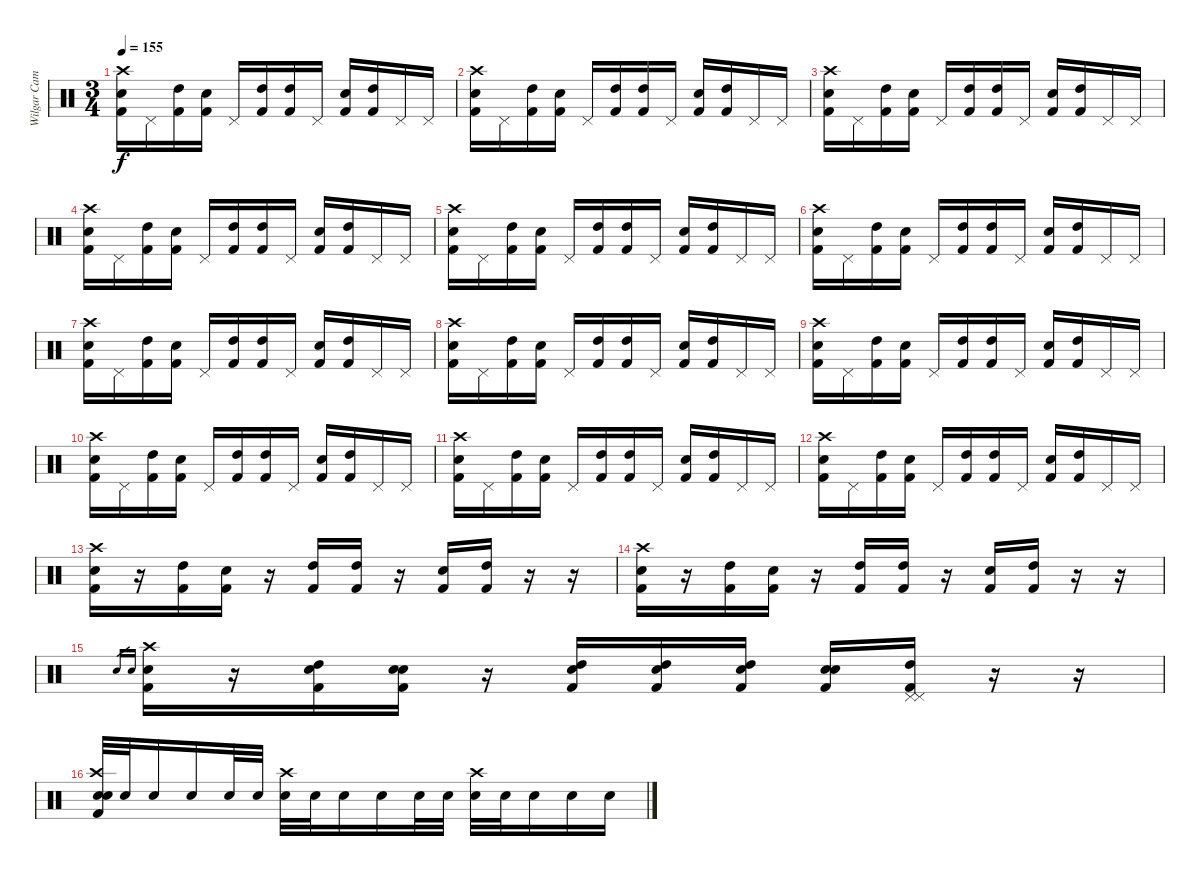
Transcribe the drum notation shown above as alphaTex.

\track ("Wilgar Campbell" "Wilgar Cam") {instrument percussion}
\staff {score}
\articulation defaults
\ts (3 4)
\tempo 155
\clef neutral
\ks c
("Kick (hit) 2" "Snare (hit) 2" "Crash high (hit)").16{dy f} "Pedal Hi-Hat (hit)".16 ("Kick (hit) 2" "High Tom (hit)").16 ("Kick (hit) 2" "Snare (hit) 2").16 "Pedal Hi-Hat (hit)".16 ("High Tom (hit)" "Kick (hit) 2").16 ("High Tom (hit)" "Kick (hit) 2").16 "Pedal Hi-Hat (hit)".16 ("Electric Snare (hit)" "Kick (hit) 2").16 ("High Tom (hit)" "Kick (hit) 2").16 "Pedal Hi-Hat (hit)".16 "Pedal Hi-Hat (hit)".16 |
("Kick (hit) 2" "Snare (hit) 2" "Crash high (hit)").16 "Pedal Hi-Hat (hit)".16 ("Kick (hit) 2" "High Tom (hit)").16 ("Kick (hit) 2" "Snare (hit) 2").16 "Pedal Hi-Hat (hit)".16 ("High Tom (hit)" "Kick (hit) 2").16 ("High Tom (hit)" "Kick (hit) 2").16 "Pedal Hi-Hat (hit)".16 ("Electric Snare (hit)" "Kick (hit) 2").16 ("High Tom (hit)" "Kick (hit) 2").16 "Pedal Hi-Hat (hit)".16 "Pedal Hi-Hat (hit)".16 |
("Kick (hit) 2" "Snare (hit) 2" "Crash high (hit)").16 "Pedal Hi-Hat (hit)".16 ("Kick (hit) 2" "High Tom (hit)").16 ("Kick (hit) 2" "Snare (hit) 2").16 "Pedal Hi-Hat (hit)".16 ("High Tom (hit)" "Kick (hit) 2").16 ("High Tom (hit)" "Kick (hit) 2").16 "Pedal Hi-Hat (hit)".16 ("Electric Snare (hit)" "Kick (hit) 2").16 ("High Tom (hit)" "Kick (hit) 2").16 "Pedal Hi-Hat (hit)".16 "Pedal Hi-Hat (hit)".16 |
("Kick (hit) 2" "Snare (hit) 2" "Crash high (hit)").16 "Pedal Hi-Hat (hit)".16 ("Kick (hit) 2" "High Tom (hit)").16 ("Kick (hit) 2" "Snare (hit) 2").16 "Pedal Hi-Hat (hit)".16 ("High Tom (hit)" "Kick (hit) 2").16 ("High Tom (hit)" "Kick (hit) 2").16 "Pedal Hi-Hat (hit)".16 ("Electric Snare (hit)" "Kick (hit) 2").16 ("High Tom (hit)" "Kick (hit) 2").16 "Pedal Hi-Hat (hit)".16 "Pedal Hi-Hat (hit)".16 |
("Kick (hit) 2" "Snare (hit) 2" "Crash high (hit)").16 "Pedal Hi-Hat (hit)".16 ("Kick (hit) 2" "High Tom (hit)").16 ("Kick (hit) 2" "Snare (hit) 2").16 "Pedal Hi-Hat (hit)".16 ("High Tom (hit)" "Kick (hit) 2").16 ("High Tom (hit)" "Kick (hit) 2").16 "Pedal Hi-Hat (hit)".16 ("Electric Snare (hit)" "Kick (hit) 2").16 ("High Tom (hit)" "Kick (hit) 2").16 "Pedal Hi-Hat (hit)".16 "Pedal Hi-Hat (hit)".16 |
("Kick (hit) 2" "Snare (hit) 2" "Crash high (hit)").16 "Pedal Hi-Hat (hit)".16 ("Kick (hit) 2" "High Tom (hit)").16 ("Kick (hit) 2" "Snare (hit) 2").16 "Pedal Hi-Hat (hit)".16 ("High Tom (hit)" "Kick (hit) 2").16 ("High Tom (hit)" "Kick (hit) 2").16 "Pedal Hi-Hat (hit)".16 ("Electric Snare (hit)" "Kick (hit) 2").16 ("High Tom (hit)" "Kick (hit) 2").16 "Pedal Hi-Hat (hit)".16 "Pedal Hi-Hat (hit)".16 |
("Kick (hit) 2" "Snare (hit) 2" "Crash high (hit)").16 "Pedal Hi-Hat (hit)".16 ("Kick (hit) 2" "High Tom (hit)").16 ("Kick (hit) 2" "Snare (hit) 2").16 "Pedal Hi-Hat (hit)".16 ("High Tom (hit)" "Kick (hit) 2").16 ("High Tom (hit)" "Kick (hit) 2").16 "Pedal Hi-Hat (hit)".16 ("Electric Snare (hit)" "Kick (hit) 2").16 ("High Tom (hit)" "Kick (hit) 2").16 "Pedal Hi-Hat (hit)".16 "Pedal Hi-Hat (hit)".16 |
("Kick (hit) 2" "Snare (hit) 2" "Crash high (hit)").16 "Pedal Hi-Hat (hit)".16 ("Kick (hit) 2" "High Tom (hit)").16 ("Kick (hit) 2" "Snare (hit) 2").16 "Pedal Hi-Hat (hit)".16 ("High Tom (hit)" "Kick (hit) 2").16 ("High Tom (hit)" "Kick (hit) 2").16 "Pedal Hi-Hat (hit)".16 ("Electric Snare (hit)" "Kick (hit) 2").16 ("High Tom (hit)" "Kick (hit) 2").16 "Pedal Hi-Hat (hit)".16 "Pedal Hi-Hat (hit)".16 |
("Kick (hit) 2" "Snare (hit) 2" "Crash high (hit)").16 "Pedal Hi-Hat (hit)".16 ("Kick (hit) 2" "High Tom (hit)").16 ("Kick (hit) 2" "Snare (hit) 2").16 "Pedal Hi-Hat (hit)".16 ("High Tom (hit)" "Kick (hit) 2").16 ("High Tom (hit)" "Kick (hit) 2").16 "Pedal Hi-Hat (hit)".16 ("Electric Snare (hit)" "Kick (hit) 2").16 ("High Tom (hit)" "Kick (hit) 2").16 "Pedal Hi-Hat (hit)".16 "Pedal Hi-Hat (hit)".16 |
("Kick (hit) 2" "Snare (hit) 2" "Crash high (hit)").16 "Pedal Hi-Hat (hit)".16 ("Kick (hit) 2" "High Tom (hit)").16 ("Kick (hit) 2" "Snare (hit) 2").16 "Pedal Hi-Hat (hit)".16 ("High Tom (hit)" "Kick (hit) 2").16 ("High Tom (hit)" "Kick (hit) 2").16 "Pedal Hi-Hat (hit)".16 ("Electric Snare (hit)" "Kick (hit) 2").16 ("High Tom (hit)" "Kick (hit) 2").16 "Pedal Hi-Hat (hit)".16 "Pedal Hi-Hat (hit)".16 |
("Kick (hit) 2" "Snare (hit) 2" "Crash high (hit)").16 "Pedal Hi-Hat (hit)".16 ("Kick (hit) 2" "High Tom (hit)").16 ("Kick (hit) 2" "Snare (hit) 2").16 "Pedal Hi-Hat (hit)".16 ("High Tom (hit)" "Kick (hit) 2").16 ("High Tom (hit)" "Kick (hit) 2").16 "Pedal Hi-Hat (hit)".16 ("Electric Snare (hit)" "Kick (hit) 2").16 ("High Tom (hit)" "Kick (hit) 2").16 "Pedal Hi-Hat (hit)".16 "Pedal Hi-Hat (hit)".16 |
("Kick (hit) 2" "Snare (hit) 2" "Crash high (hit)").16 "Pedal Hi-Hat (hit)".16 ("Kick (hit) 2" "High Tom (hit)").16 ("Kick (hit) 2" "Snare (hit) 2").16 "Pedal Hi-Hat (hit)".16 ("High Tom (hit)" "Kick (hit) 2").16 ("High Tom (hit)" "Kick (hit) 2").16 "Pedal Hi-Hat (hit)".16 ("Electric Snare (hit)" "Kick (hit) 2").16 ("High Tom (hit)" "Kick (hit) 2").16 "Pedal Hi-Hat (hit)".16 "Pedal Hi-Hat (hit)".16 |
("Kick (hit) 2" "Snare (hit) 2" "Crash high (hit)").16 r.16 ("Kick (hit) 2" "High Tom (hit)").16 ("Kick (hit) 2" "Snare (hit) 2").16 r.16 ("High Tom (hit)" "Kick (hit) 2").16 ("High Tom (hit)" "Kick (hit) 2").16 r.16 ("Electric Snare (hit)" "Kick (hit) 2").16 ("High Tom (hit)" "Kick (hit) 2").16 r.16 r.16 |
("Kick (hit) 2" "Snare (hit) 2" "Crash high (hit)").16 r.16 ("Kick (hit) 2" "High Tom (hit)").16 ("Kick (hit) 2" "Snare (hit) 2").16 r.16 ("High Tom (hit)" "Kick (hit) 2").16 ("High Tom (hit)" "Kick (hit) 2").16 r.16 ("Electric Snare (hit)" "Kick (hit) 2").16 ("High Tom (hit)" "Kick (hit) 2").16 r.16 r.16 |
"Electric Snare (hit)".16{gr} "Electric Snare (hit)".16{gr} ("Kick (hit) 2" "Snare (hit) 2" "Crash high (hit)").16 r.16 ("Electric Snare (hit)" "Kick (hit) 2" "High Tom (hit)").16 ("Electric Snare (hit)" "Kick (hit) 2" "Snare (hit) 2").16 r.16 ("Electric Snare (hit)" "High Tom (hit)" "Kick (hit) 2").16 ("Electric Snare (hit)" "High Tom (hit)" "Kick (hit) 2").16 ("Electric Snare (hit)" "High Tom (hit)" "Kick (hit) 2").16 ("Electric Snare (hit)" "Electric Snare (hit)" "Kick (hit) 2").16 ("Kick (hit) 2" "Pedal Hi-Hat (hit)" "High Tom (hit)" "Pedal Hi-Hat (hit)").16 r.16 r.16 |
("Kick (hit) 2" "Snare (hit) 2" "Crash high (hit)" "Electric Snare (hit)").32 "Electric Snare (hit)".32 "Electric Snare (hit)".16 "Electric Snare (hit)".16 "Electric Snare (hit)".32 "Electric Snare (hit)".32 ("Crash high (hit)" "Electric Snare (hit)").32 "Electric Snare (hit)".32 "Electric Snare (hit)".16 "Electric Snare (hit)".16 "Electric Snare (hit)".32 "Electric Snare (hit)".32 ("Crash high (hit)" "Electric Snare (hit)").32 "Electric Snare (hit)".32 "Electric Snare (hit)".16 "Electric Snare (hit)".16 "Electric Snare (hit)".16
